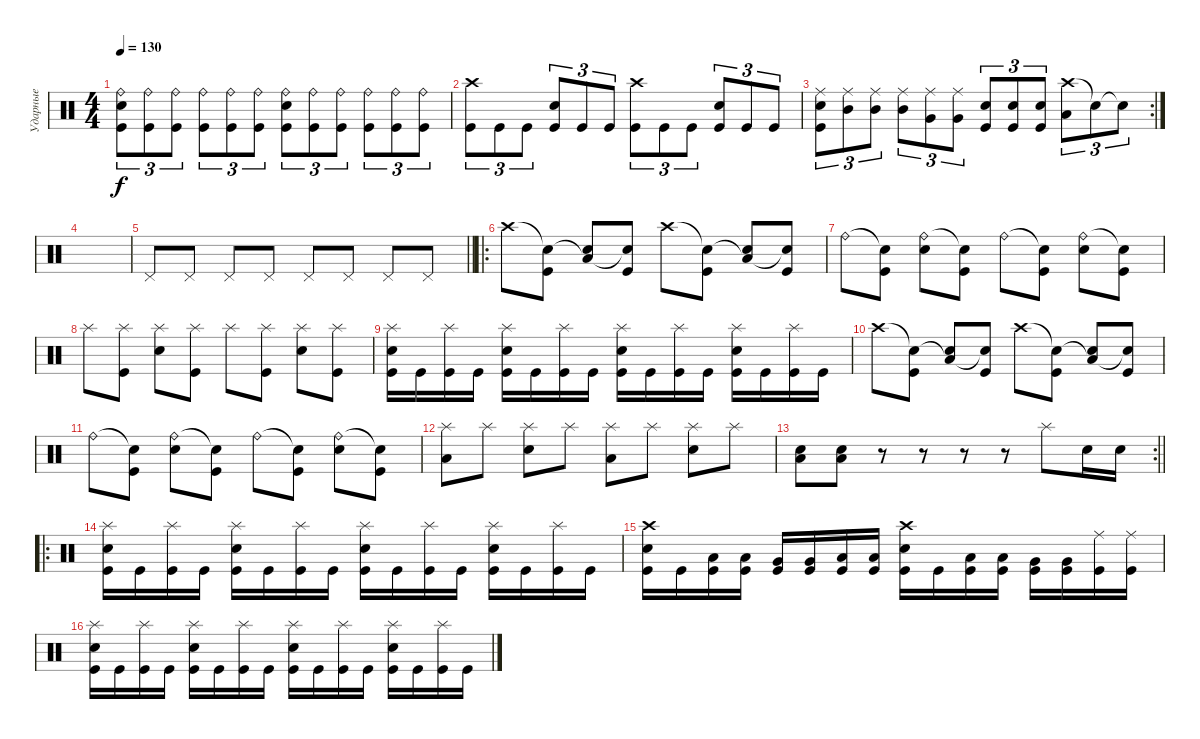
\track ("Ударные" "Ударные") {instrument percussion}
\staff {score}
\articulation defaults
\ts (4 4)
\tempo 130
\clef neutral
\ks c
("Electric Snare (hit)" "Kick (hit)" "Ride (bell)").8{tu (3 2) dy f} ("Kick (hit)" "Ride (bell)").8{tu (3 2)} ("Kick (hit)" "Ride (bell)").8{tu (3 2)} ("Kick (hit)" "Ride (bell)").8{tu (3 2)} ("Kick (hit)" "Ride (bell)").8{tu (3 2)} ("Kick (hit)" "Ride (bell)").8{tu (3 2)} ("Electric Snare (hit)" "Kick (hit)" "Ride (bell)").8{tu (3 2)} ("Kick (hit)" "Ride (bell)").8{tu (3 2)} ("Kick (hit)" "Ride (bell)").8{tu (3 2)} ("Kick (hit)" "Ride (bell)").8{tu (3 2)} ("Kick (hit)" "Ride (bell)").8{tu (3 2)} ("Kick (hit)" "Ride (bell)").8{tu (3 2)} |
("Kick (hit)" "Crash high (hit)").8{tu (3 2)} "Kick (hit)".8{tu (3 2)} "Kick (hit)".8{tu (3 2)} ("Kick (hit)" "Electric Snare (hit)").8{tu (3 2)} "Kick (hit)".8{tu (3 2)} "Kick (hit)".8{tu (3 2)} ("Kick (hit)" "Crash high (hit)").8{tu (3 2)} "Kick (hit)".8{tu (3 2)} "Kick (hit)".8{tu (3 2)} ("Kick (hit)" "Electric Snare (hit)").8{tu (3 2)} "Kick (hit)".8{tu (3 2)} "Kick (hit)".8{tu (3 2)} |
\rc 2
("Electric Snare (hit)" "Kick (hit)" "Ride (middle)").8{tu (3 2)} ("Mid Tom (hit)" "Ride (middle)").8{tu (3 2)} ("Mid Tom (hit)" "Ride (middle)").8{tu (3 2)} ("Mid Tom (hit)" "Ride (middle)").8{tu (3 2)} ("Very Low Tom (hit)" "Ride (middle)").8{tu (3 2)} ("Very Low Tom (hit)" "Ride (middle)").8{tu (3 2)} ("Electric Snare (hit)" "Kick (hit)").8{tu (3 2)} ("Electric Snare (hit)" "Kick (hit)").8{tu (3 2)} ("Electric Snare (hit)" "Kick (hit)").8{tu (3 2)} ("Crash high (hit)" "Low Floor Tom (hit)").8{tu (3 2)} "Snare (hit)"{t}.8{tu (3 2)} "Snare (hit)"{t}.8{tu (3 2)} |
|
\barLineRight lightlight "Pedal Hi-Hat (hit)".8 "Pedal Hi-Hat (hit)".8 "Pedal Hi-Hat (hit)".8 "Pedal Hi-Hat (hit)".8 "Pedal Hi-Hat (hit)".8 "Pedal Hi-Hat (hit)".8 "Pedal Hi-Hat (hit)".8 "Pedal Hi-Hat (hit)".8
|
\ro "Crash high (hit)".8
("Snare (hit)"{t} "Kick (hit)").8 ("Low Floor Tom (hit)"{t} "Electric Snare (hit)").8 ("Snare (hit)"{t} "Kick (hit)").8 "Crash high (hit)".8 ("Snare (hit)"{t} "Kick (hit)").8 ("Low Floor Tom (hit)"{t} "Electric Snare (hit)").8 ("Snare (hit)"{t} "Kick (hit)").8 |
"Ride (bell)".8 ("Snare (hit)"{t} "Kick (hit)").8 ("Ride (bell)" "Electric Snare (hit)").8 ("Snare (hit)"{t} "Kick (hit)").8 "Ride (bell)".8 ("Snare (hit)"{t} "Kick (hit)").8 ("Ride (bell)" "Electric Snare (hit)").8 ("Snare (hit)"{t} "Kick (hit)").8 |
"Splash (hit)".8 ("Splash (hit)" "Kick (hit)").8 ("Splash (hit)" "Electric Snare (hit)").8 ("Splash (hit)" "Kick (hit)").8 "Splash (hit)".8 ("Splash (hit)" "Kick (hit)").8 ("Splash (hit)" "Electric Snare (hit)").8 ("Splash (hit)" "Kick (hit)").8 |
("Splash (hit)" "Electric Snare (hit)" "Kick (hit)").16 "Kick (hit)".16 ("Splash (hit)" "Kick (hit)").16 "Kick (hit)".16 ("Splash (hit)" "Electric Snare (hit)" "Kick (hit)").16 "Kick (hit)".16 ("Splash (hit)" "Kick (hit)").16 "Kick (hit)".16 ("Splash (hit)" "Electric Snare (hit)" "Kick (hit)").16 "Kick (hit)".16 ("Splash (hit)" "Kick (hit)").16 "Kick (hit)".16 ("Splash (hit)" "Electric Snare (hit)" "Kick (hit)").16 "Kick (hit)".16 ("Splash (hit)" "Kick (hit)").16 "Kick (hit)".16 |
"Crash high (hit)".8 ("Snare (hit)"{t} "Kick (hit)").8 ("Low Floor Tom (hit)"{t} "Electric Snare (hit)").8 ("Snare (hit)"{t} "Kick (hit)").8 "Crash high (hit)".8 ("Snare (hit)"{t} "Kick (hit)").8 ("Low Floor Tom (hit)"{t} "Electric Snare (hit)").8 ("Snare (hit)"{t} "Kick (hit)").8 |
"Ride (bell)".8 ("Snare (hit)"{t} "Kick (hit)").8 ("Ride (bell)" "Electric Snare (hit)").8 ("Snare (hit)"{t} "Kick (hit)").8 "Ride (bell)".8 ("Snare (hit)"{t} "Kick (hit)").8 ("Ride (bell)" "Electric Snare (hit)").8 ("Snare (hit)"{t} "Kick (hit)").8 |
("Splash (hit)" "Low Floor Tom (hit)").8 "Splash (hit)".8 ("Splash (hit)" "Electric Snare (hit)").8 "Splash (hit)".8 ("Splash (hit)" "Low Floor Tom (hit)").8 "Splash (hit)".8 ("Splash (hit)" "Electric Snare (hit)").8 "Splash (hit)".8 |
\rc 2
\barLineRight lightlight
("Low Floor Tom (hit)" "Electric Snare (hit)").8 ("Low Floor Tom (hit)" "Electric Snare (hit)").8 r.8 r.8 r.8 r.8 "Splash (hit)".8 "Electric Snare (hit)".16 "Electric Snare (hit)".16 |
\ro
("Splash (hit)" "Electric Snare (hit)" "Kick (hit)").16 "Kick (hit)".16 ("Splash (hit)" "Kick (hit)").16 "Kick (hit)".16 ("Splash (hit)" "Electric Snare (hit)" "Kick (hit)").16 "Kick (hit)".16 ("Splash (hit)" "Kick (hit)").16 "Kick (hit)".16 ("Splash (hit)" "Electric Snare (hit)" "Kick (hit)").16 "Kick (hit)".16 ("Splash (hit)" "Kick (hit)").16 "Kick (hit)".16 ("Splash (hit)" "Electric Snare (hit)" "Kick (hit)").16 "Kick (hit)".16 ("Splash (hit)" "Kick (hit)").16 "Kick (hit)".16 |
("Crash high (hit)" "Electric Snare (hit)" "Kick (hit)").16 "Kick (hit)".16 ("Low Tom (hit)" "Kick (hit)").16 ("Low Tom (hit)" "Kick (hit)").16 ("Very Low Tom (hit)" "Kick (hit)").16 ("Very Low Tom (hit)" "Kick (hit)").16 ("Low Floor Tom (hit)" "Kick (hit)").16 ("Low Floor Tom (hit)" "Kick (hit)").16 ("Crash high (hit)" "Electric Snare (hit)" "Kick (hit)").16 "Kick (hit)".16 ("Low Tom (hit)" "Kick (hit)").16 ("Low Tom (hit)" "Kick (hit)").16 ("Very Low Tom (hit)" "Kick (hit)").16 ("Very Low Tom (hit)" "Kick (hit)").16 ("Ride (middle)" "Kick (hit)").16 ("Ride (middle)" "Kick (hit)").16 |
("Splash (hit)" "Electric Snare (hit)" "Kick (hit)").16 "Kick (hit)".16 ("Splash (hit)" "Kick (hit)").16 "Kick (hit)".16 ("Splash (hit)" "Electric Snare (hit)" "Kick (hit)").16 "Kick (hit)".16 ("Splash (hit)" "Kick (hit)").16 "Kick (hit)".16 ("Splash (hit)" "Electric Snare (hit)" "Kick (hit)").16 "Kick (hit)".16 ("Splash (hit)" "Kick (hit)").16 "Kick (hit)".16 ("Splash (hit)" "Electric Snare (hit)" "Kick (hit)").16 "Kick (hit)".16 ("Splash (hit)" "Kick (hit)").16 "Kick (hit)".16
